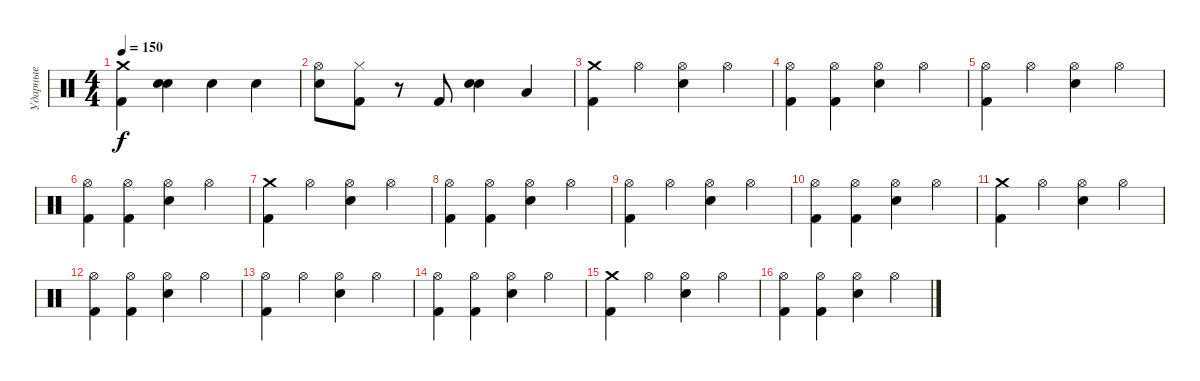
\track ("Ударные" "Ударные") {instrument percussion}
\staff {score}
\articulation defaults
\ts (4 4)
\tempo 150
\clef neutral
\ks c
("Crash medium (hit)" "Kick (hit) 2").4{dy f} ("Electric Snare (hit)" "Electric Snare (hit)").4{bu 120} "Electric Snare (hit)".4 "Electric Snare (hit)".4 |
("Hi-Hat (open)" "Electric Snare (hit)").8 ("Hi-Hat (closed)" "Kick (hit) 2").8 r.8 "Kick (hit) 2".8 ("Electric Snare (hit)" "Electric Snare (hit)").4{bu 240} "Low Tom (hit)".4 |
("Crash medium (hit)" "Kick (hit) 2").4 "Hi-Hat (open)".4 ("Hi-Hat (open)" "Electric Snare (hit)").4 "Hi-Hat (open)".4 |
("Hi-Hat (open)" "Kick (hit) 2").4 ("Hi-Hat (open)" "Kick (hit) 2").4 ("Hi-Hat (open)" "Electric Snare (hit)").4 "Hi-Hat (open)".4 |
("Hi-Hat (open)" "Kick (hit) 2").4 "Hi-Hat (open)".4 ("Hi-Hat (open)" "Electric Snare (hit)").4 "Hi-Hat (open)".4 |
("Hi-Hat (open)" "Kick (hit) 2").4 ("Hi-Hat (open)" "Kick (hit) 2").4 ("Hi-Hat (open)" "Electric Snare (hit)").4 "Hi-Hat (open)".4 |
("Crash medium (hit)" "Kick (hit) 2").4 "Hi-Hat (open)".4 ("Hi-Hat (open)" "Electric Snare (hit)").4 "Hi-Hat (open)".4 |
("Hi-Hat (open)" "Kick (hit) 2").4 ("Hi-Hat (open)" "Kick (hit) 2").4 ("Hi-Hat (open)" "Electric Snare (hit)").4 "Hi-Hat (open)".4 |
("Hi-Hat (open)" "Kick (hit) 2").4 "Hi-Hat (open)".4 ("Hi-Hat (open)" "Electric Snare (hit)").4 "Hi-Hat (open)".4 |
("Hi-Hat (open)" "Kick (hit) 2").4 ("Hi-Hat (open)" "Kick (hit) 2").4 ("Hi-Hat (open)" "Electric Snare (hit)").4 "Hi-Hat (open)".4 |
("Crash medium (hit)" "Kick (hit) 2").4 "Hi-Hat (open)".4 ("Hi-Hat (open)" "Electric Snare (hit)").4 "Hi-Hat (open)".4 |
("Hi-Hat (open)" "Kick (hit) 2").4 ("Hi-Hat (open)" "Kick (hit) 2").4 ("Hi-Hat (open)" "Electric Snare (hit)").4 "Hi-Hat (open)".4 |
("Hi-Hat (open)" "Kick (hit) 2").4 "Hi-Hat (open)".4 ("Hi-Hat (open)" "Electric Snare (hit)").4 "Hi-Hat (open)".4 |
("Hi-Hat (open)" "Kick (hit) 2").4 ("Hi-Hat (open)" "Kick (hit) 2").4 ("Hi-Hat (open)" "Electric Snare (hit)").4 "Hi-Hat (open)".4 |
("Crash medium (hit)" "Kick (hit) 2").4 "Hi-Hat (open)".4 ("Hi-Hat (open)" "Electric Snare (hit)").4 "Hi-Hat (open)".4 |
("Hi-Hat (open)" "Kick (hit) 2").4 ("Hi-Hat (open)" "Kick (hit) 2").4 ("Hi-Hat (open)" "Electric Snare (hit)").4 "Hi-Hat (open)".4
